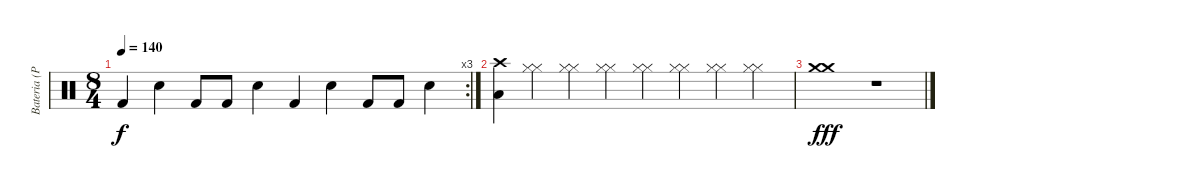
\track ("Bateria (Pelado)" "Bateria (P") {instrument percussion}
\staff {score}
\articulation defaults
\rc 3
\ts (8 4)
\tempo 140
\clef neutral
\ks c "Kick (hit) 2".4{dy f} "Snare (hit) 2".4 "Kick (hit) 2".8 "Kick (hit) 2".8 "Snare (hit) 2".4 "Kick (hit) 2".4 "Snare (hit) 2".4 "Kick (hit) 2".8 "Kick (hit) 2".8 "Snare (hit) 2".4
|
("Low Floor Tom (hit)" "Crash high (hit)").4 ("Hi-Hat (closed)" "Hi-Hat (closed)").4 ("Hi-Hat (closed)" "Hi-Hat (closed)").4 ("Hi-Hat (closed)" "Hi-Hat (closed)").4 ("Hi-Hat (closed)" "Hi-Hat (closed)").4 ("Hi-Hat (closed)" "Hi-Hat (closed)").4 ("Hi-Hat (closed)" "Hi-Hat (closed)").4 ("Hi-Hat (closed)" "Hi-Hat (closed)").4 |
("Crash medium (hit)" "Crash medium (hit)").1{dy fff} r.1
